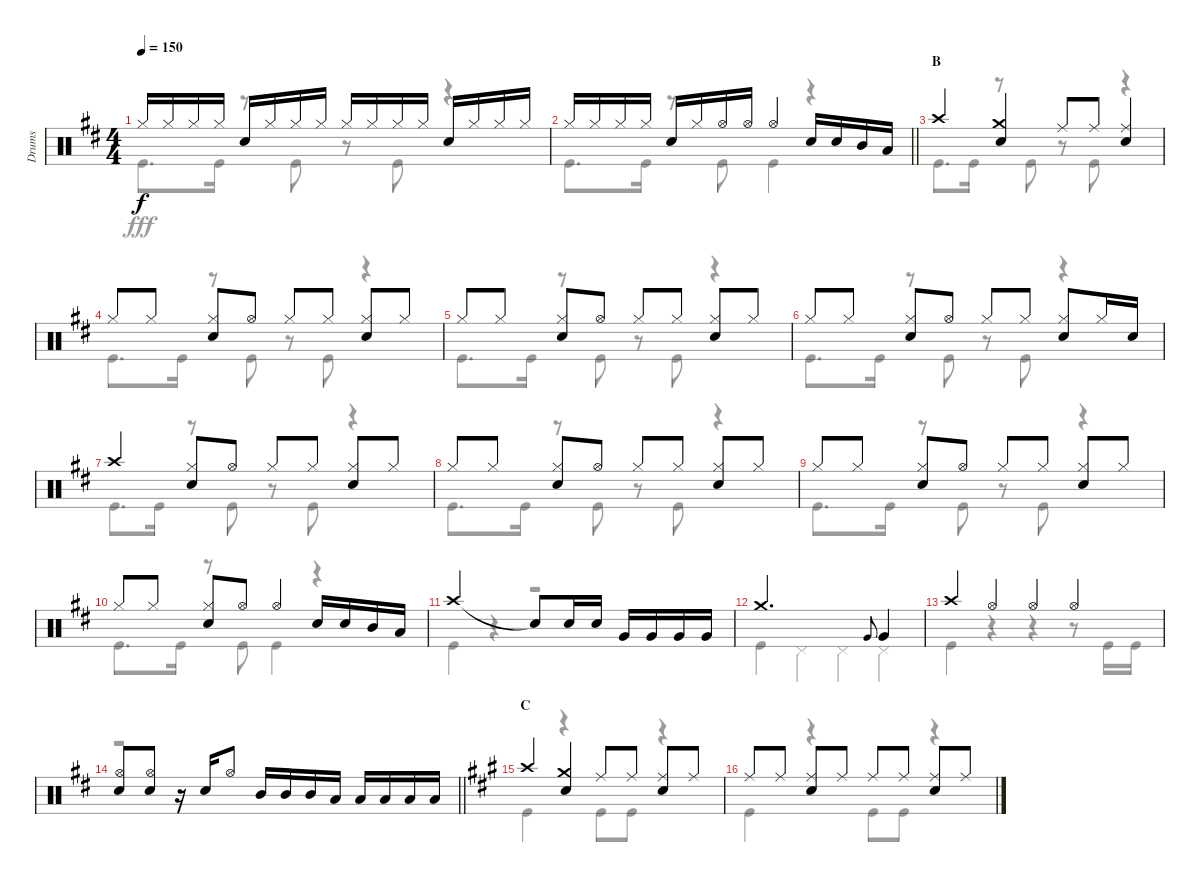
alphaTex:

\track ("Drums" "Drums") {instrument percussion}
\staff {score}
\articulation defaults
\voice
\ts (4 4)
\tempo 150
\clef neutral
\ks d "Hi-Hat (closed)".16{dy f} "Hi-Hat (closed)".16 "Hi-Hat (closed)".16 "Hi-Hat (closed)".16 "Snare (hit) 2".16 "Hi-Hat (closed)".16 "Hi-Hat (closed)".16 "Hi-Hat (closed)".16 "Hi-Hat (closed)".16 "Hi-Hat (closed)".16 "Hi-Hat (closed)".16 "Hi-Hat (closed)".16 "Snare (hit) 2".16 "Hi-Hat (closed)".16 "Hi-Hat (closed)".16 "Hi-Hat (closed)".16
|
\barLineRight lightlight "Hi-Hat (closed)".16 "Hi-Hat (closed)".16 "Hi-Hat (closed)".16 "Hi-Hat (closed)".16 "Snare (hit) 2".16 "Hi-Hat (closed)".16 "Hi-Hat (open)".16 "Hi-Hat (open)".16 "Hi-Hat (open)".4 "Snare (hit) 2".16 "Snare (hit) 2".16 "Mid Tom (hit)".16 "Low Tom (hit)".16
|
\section ("" "B")
"Crash high (hit)".4 ("Crash medium (hit)" "Snare (hit) 2").4 "Ride (middle)".8 "Ride (middle)".8 ("Ride (middle)" "Snare (hit) 2").4 |
"Hi-Hat (closed)".8 "Hi-Hat (closed)".8 ("Hi-Hat (closed)" "Snare (hit) 2").8 "Hi-Hat (open)".8 "Hi-Hat (closed)".8 "Hi-Hat (closed)".8 ("Hi-Hat (closed)" "Snare (hit) 2").8 "Hi-Hat (closed)".8 |
"Hi-Hat (closed)".8 "Hi-Hat (closed)".8 ("Hi-Hat (closed)" "Snare (hit) 2").8 "Hi-Hat (open)".8 "Hi-Hat (closed)".8 "Hi-Hat (closed)".8 ("Hi-Hat (closed)" "Snare (hit) 2").8 "Hi-Hat (closed)".8 |
"Hi-Hat (closed)".8 "Hi-Hat (closed)".8 ("Hi-Hat (closed)" "Snare (hit) 2").8 "Hi-Hat (open)".8 "Hi-Hat (closed)".8 "Hi-Hat (closed)".8 ("Hi-Hat (closed)" "Snare (hit) 2").8 "Hi-Hat (closed)".16 "Snare (hit) 2".16 |
"Crash high (hit)".4 ("Hi-Hat (closed)" "Snare (hit) 2").8 "Hi-Hat (open)".8 "Hi-Hat (closed)".8 "Hi-Hat (closed)".8 ("Hi-Hat (closed)" "Snare (hit) 2").8 "Hi-Hat (closed)".8 |
"Hi-Hat (closed)".8 "Hi-Hat (closed)".8 ("Hi-Hat (closed)" "Snare (hit) 2").8 "Hi-Hat (open)".8 "Hi-Hat (closed)".8 "Hi-Hat (closed)".8 ("Hi-Hat (closed)" "Snare (hit) 2").8 "Hi-Hat (closed)".8 |
"Hi-Hat (closed)".8 "Hi-Hat (closed)".8 ("Hi-Hat (closed)" "Snare (hit) 2").8 "Hi-Hat (open)".8 "Hi-Hat (closed)".8 "Hi-Hat (closed)".8 ("Hi-Hat (closed)" "Snare (hit) 2").8 "Hi-Hat (closed)".8 |
"Hi-Hat (closed)".8 "Hi-Hat (closed)".8 ("Hi-Hat (closed)" "Snare (hit) 2").8 "Hi-Hat (open)".8 "Hi-Hat (open)".4 "Snare (hit) 2".16 "Snare (hit) 2".16 "Mid Tom (hit)".16 "Low Tom (hit)".16 |
"Crash high (hit)".2 "Snare (hit)"{t}.8 "Snare (hit) 2".16 "Snare (hit) 2".16 "Very Low Tom (hit)".16 "Very Low Tom (hit)".16 "Very Low Tom (hit)".16 "Very Low Tom (hit)".16 |
"Crash medium (hit)".2{d} "Very Low Tom (hit)".8{gr onbeat} "Very Low Tom (hit)".4 |
"Crash high (hit)".4 "Hi-Hat (open)".4 "Hi-Hat (open)".4 "Hi-Hat (open)".4 |
\barLineRight lightlight
("Hi-Hat (open)" "Snare (hit) 2").8 ("Hi-Hat (open)" "Snare (hit) 2").8 r.16 "Snare (hit) 2".16 "Hi-Hat (open)".8 "Mid Tom (hit)".16 "Mid Tom (hit)".16 "Mid Tom (hit)".16 "Low Tom (hit)".16 "Low Tom (hit)".16 "Low Tom (hit)".16 "Low Tom (hit)".16 "Low Tom (hit)".16 |
\section ("" "C")
\ks a "Crash high (hit)".4
("Crash medium (hit)" "Snare (hit) 2").4 "Ride (middle)".8 "Ride (middle)".8 ("Ride (middle)" "Snare (hit) 2").8 "Ride (middle)".8 |
"Ride (middle)".8 "Ride (middle)".8 ("Ride (middle)" "Snare (hit) 2").8 "Ride (middle)".8 "Ride (middle)".8 "Ride (middle)".8 ("Ride (middle)" "Snare (hit) 2").8 "Ride (middle)".8
\voice
\clef neutral
\ottava regular
\simile none
\ks d "Kick (hit)".8{d dy fff} "Kick (hit)".16
r.8 "Kick (hit)".8 r.8 "Kick (hit)".8 r.4 |
\barLineRight lightlight "Kick (hit)".8{d} "Kick (hit)".16
r.8 "Kick (hit)".8 "Kick (hit)".4 r.4 |
"Kick (hit)".8{d} "Kick (hit)".16 r.8 "Kick (hit)".8 r.8 "Kick (hit)".8 r.4 |
"Kick (hit)".8{d} "Kick (hit)".16 r.8 "Kick (hit)".8 r.8 "Kick (hit)".8 r.4 |
"Kick (hit)".8{d} "Kick (hit)".16 r.8 "Kick (hit)".8 r.8 "Kick (hit)".8 r.4 |
"Kick (hit)".8{d} "Kick (hit)".16 r.8 "Kick (hit)".8 r.8 "Kick (hit)".8 r.4 |
"Kick (hit)".8{d} "Kick (hit)".16 r.8 "Kick (hit)".8 r.8 "Kick (hit)".8 r.4 |
"Kick (hit)".8{d} "Kick (hit)".16 r.8 "Kick (hit)".8 r.8 "Kick (hit)".8 r.4 |
"Kick (hit)".8{d} "Kick (hit)".16 r.8 "Kick (hit)".8 r.8 "Kick (hit)".8 r.4 |
"Kick (hit)".8{d} "Kick (hit)".16 r.8 "Kick (hit)".8 "Kick (hit)".4 r.4 |
"Kick (hit)".4 r.4 r.2 |
"Kick (hit)".4 "Pedal Hi-Hat (hit)".4 "Pedal Hi-Hat (hit)".4 "Pedal Hi-Hat (hit)".4 |
"Kick (hit)".4 r.4 r.4 r.8 "Kick (hit)".16 "Kick (hit)".16 |
\barLineRight lightlight
r.1 |
\ks a "Kick (hit)".4
r.4 "Kick (hit)".8 "Kick (hit)".8 r.4 |
"Kick (hit)".4 r.4 "Kick (hit)".8 "Kick (hit)".8 r.4
